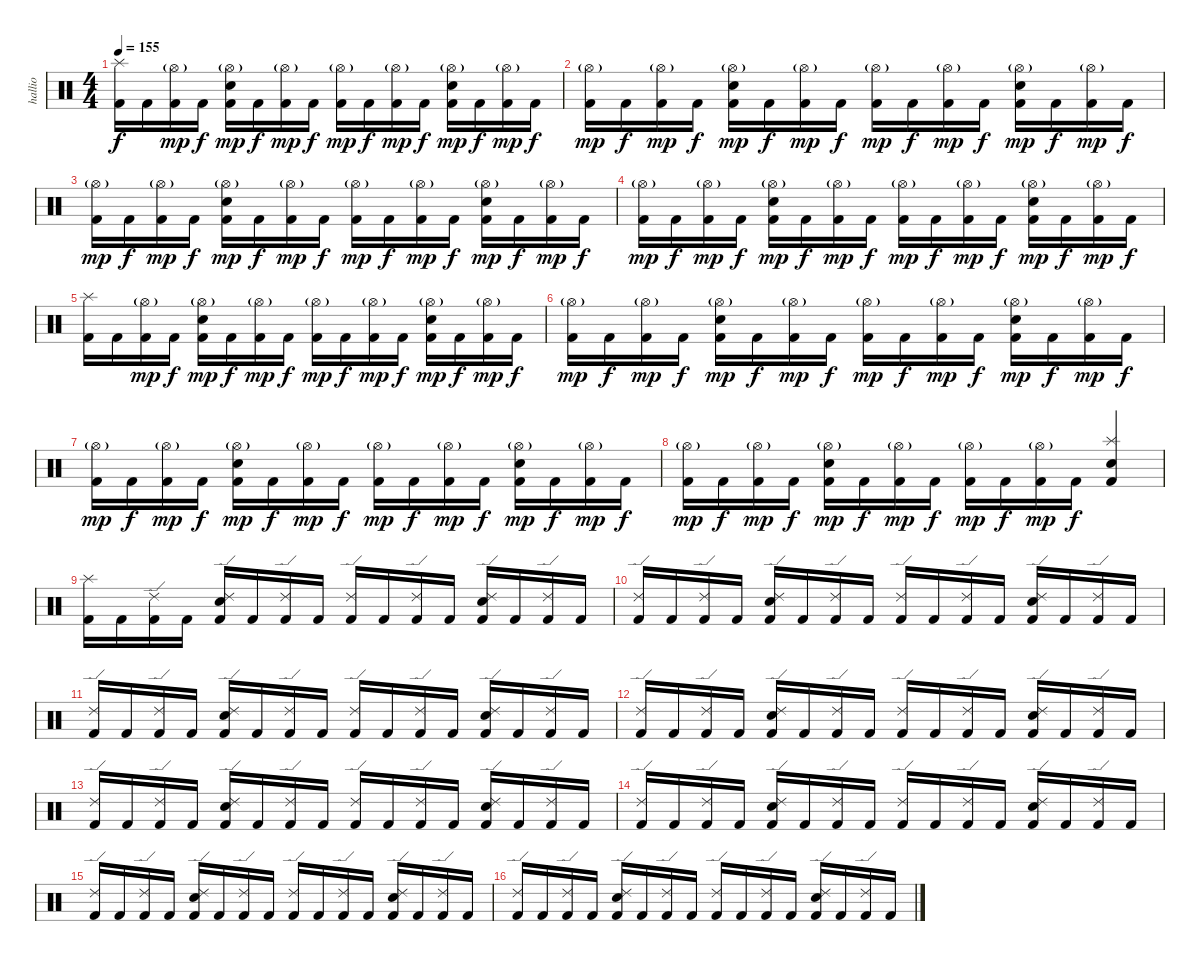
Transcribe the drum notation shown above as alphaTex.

\track ("hallio" "hallio") {instrument percussion}
\staff {score}
\articulation defaults
\ts (4 4)
\tempo 155
\clef neutral
\ks c
("Kick (hit) 2" "Splash (hit)").16{dy f} "Kick (hit) 2".16 ("Kick (hit) 2" "Hi-Hat (open)"{g}).16{dy mp} "Kick (hit) 2".16{dy f} ("Kick (hit) 2" "Snare (hit) 2" "Hi-Hat (open)"{g}).16{dy mp} "Kick (hit) 2".16{dy f} ("Kick (hit) 2" "Hi-Hat (open)"{g}).16{dy mp} "Kick (hit) 2".16{dy f} ("Kick (hit) 2" "Hi-Hat (open)"{g}).16{dy mp} "Kick (hit) 2".16{dy f} ("Kick (hit) 2" "Hi-Hat (open)"{g}).16{dy mp} "Kick (hit) 2".16{dy f} ("Kick (hit) 2" "Snare (hit) 2" "Hi-Hat (open)"{g}).16{dy mp} "Kick (hit) 2".16{dy f} ("Kick (hit) 2" "Hi-Hat (open)"{g}).16{dy mp} "Kick (hit) 2".16{dy f} |
("Kick (hit) 2" "Hi-Hat (open)"{g}).16{dy mp} "Kick (hit) 2".16{dy f} ("Kick (hit) 2" "Hi-Hat (open)"{g}).16{dy mp} "Kick (hit) 2".16{dy f} ("Kick (hit) 2" "Snare (hit) 2" "Hi-Hat (open)"{g}).16{dy mp} "Kick (hit) 2".16{dy f} ("Kick (hit) 2" "Hi-Hat (open)"{g}).16{dy mp} "Kick (hit) 2".16{dy f} ("Kick (hit) 2" "Hi-Hat (open)"{g}).16{dy mp} "Kick (hit) 2".16{dy f} ("Kick (hit) 2" "Hi-Hat (open)"{g}).16{dy mp} "Kick (hit) 2".16{dy f} ("Kick (hit) 2" "Snare (hit) 2" "Hi-Hat (open)"{g}).16{dy mp} "Kick (hit) 2".16{dy f} ("Kick (hit) 2" "Hi-Hat (open)"{g}).16{dy mp} "Kick (hit) 2".16{dy f} |
("Kick (hit) 2" "Hi-Hat (open)"{g}).16{dy mp} "Kick (hit) 2".16{dy f} ("Kick (hit) 2" "Hi-Hat (open)"{g}).16{dy mp} "Kick (hit) 2".16{dy f} ("Kick (hit) 2" "Snare (hit) 2" "Hi-Hat (open)"{g}).16{dy mp} "Kick (hit) 2".16{dy f} ("Kick (hit) 2" "Hi-Hat (open)"{g}).16{dy mp} "Kick (hit) 2".16{dy f} ("Kick (hit) 2" "Hi-Hat (open)"{g}).16{dy mp} "Kick (hit) 2".16{dy f} ("Kick (hit) 2" "Hi-Hat (open)"{g}).16{dy mp} "Kick (hit) 2".16{dy f} ("Kick (hit) 2" "Snare (hit) 2" "Hi-Hat (open)"{g}).16{dy mp} "Kick (hit) 2".16{dy f} ("Kick (hit) 2" "Hi-Hat (open)"{g}).16{dy mp} "Kick (hit) 2".16{dy f} |
("Kick (hit) 2" "Hi-Hat (open)"{g}).16{dy mp} "Kick (hit) 2".16{dy f} ("Kick (hit) 2" "Hi-Hat (open)"{g}).16{dy mp} "Kick (hit) 2".16{dy f} ("Kick (hit) 2" "Snare (hit) 2" "Hi-Hat (open)"{g}).16{dy mp} "Kick (hit) 2".16{dy f} ("Kick (hit) 2" "Hi-Hat (open)"{g}).16{dy mp} "Kick (hit) 2".16{dy f} ("Kick (hit) 2" "Hi-Hat (open)"{g}).16{dy mp} "Kick (hit) 2".16{dy f} ("Kick (hit) 2" "Hi-Hat (open)"{g}).16{dy mp} "Kick (hit) 2".16{dy f} ("Kick (hit) 2" "Snare (hit) 2" "Hi-Hat (open)"{g}).16{dy mp} "Kick (hit) 2".16{dy f} ("Kick (hit) 2" "Hi-Hat (open)"{g}).16{dy mp} "Kick (hit) 2".16{dy f} |
("Kick (hit) 2" "Splash (hit)").16 "Kick (hit) 2".16 ("Kick (hit) 2" "Hi-Hat (open)"{g}).16{dy mp} "Kick (hit) 2".16{dy f} ("Kick (hit) 2" "Snare (hit) 2" "Hi-Hat (open)"{g}).16{dy mp} "Kick (hit) 2".16{dy f} ("Kick (hit) 2" "Hi-Hat (open)"{g}).16{dy mp} "Kick (hit) 2".16{dy f} ("Kick (hit) 2" "Hi-Hat (open)"{g}).16{dy mp} "Kick (hit) 2".16{dy f} ("Kick (hit) 2" "Hi-Hat (open)"{g}).16{dy mp} "Kick (hit) 2".16{dy f} ("Kick (hit) 2" "Snare (hit) 2" "Hi-Hat (open)"{g}).16{dy mp} "Kick (hit) 2".16{dy f} ("Kick (hit) 2" "Hi-Hat (open)"{g}).16{dy mp} "Kick (hit) 2".16{dy f} |
("Kick (hit) 2" "Hi-Hat (open)"{g}).16{dy mp} "Kick (hit) 2".16{dy f} ("Kick (hit) 2" "Hi-Hat (open)"{g}).16{dy mp} "Kick (hit) 2".16{dy f} ("Kick (hit) 2" "Snare (hit) 2" "Hi-Hat (open)"{g}).16{dy mp} "Kick (hit) 2".16{dy f} ("Kick (hit) 2" "Hi-Hat (open)"{g}).16{dy mp} "Kick (hit) 2".16{dy f} ("Kick (hit) 2" "Hi-Hat (open)"{g}).16{dy mp} "Kick (hit) 2".16{dy f} ("Kick (hit) 2" "Hi-Hat (open)"{g}).16{dy mp} "Kick (hit) 2".16{dy f} ("Kick (hit) 2" "Snare (hit) 2" "Hi-Hat (open)"{g}).16{dy mp} "Kick (hit) 2".16{dy f} ("Kick (hit) 2" "Hi-Hat (open)"{g}).16{dy mp} "Kick (hit) 2".16{dy f} |
("Kick (hit) 2" "Hi-Hat (open)"{g}).16{dy mp} "Kick (hit) 2".16{dy f} ("Kick (hit) 2" "Hi-Hat (open)"{g}).16{dy mp} "Kick (hit) 2".16{dy f} ("Kick (hit) 2" "Snare (hit) 2" "Hi-Hat (open)"{g}).16{dy mp} "Kick (hit) 2".16{dy f} ("Kick (hit) 2" "Hi-Hat (open)"{g}).16{dy mp} "Kick (hit) 2".16{dy f} ("Kick (hit) 2" "Hi-Hat (open)"{g}).16{dy mp} "Kick (hit) 2".16{dy f} ("Kick (hit) 2" "Hi-Hat (open)"{g}).16{dy mp} "Kick (hit) 2".16{dy f} ("Kick (hit) 2" "Snare (hit) 2" "Hi-Hat (open)"{g}).16{dy mp} "Kick (hit) 2".16{dy f} ("Kick (hit) 2" "Hi-Hat (open)"{g}).16{dy mp} "Kick (hit) 2".16{dy f} |
("Kick (hit) 2" "Hi-Hat (open)"{g}).16{dy mp} "Kick (hit) 2".16{dy f} ("Kick (hit) 2" "Hi-Hat (open)"{g}).16{dy mp} "Kick (hit) 2".16{dy f} ("Kick (hit) 2" "Snare (hit) 2" "Hi-Hat (open)"{g}).16{dy mp} "Kick (hit) 2".16{dy f} ("Kick (hit) 2" "Hi-Hat (open)"{g}).16{dy mp} "Kick (hit) 2".16{dy f} ("Kick (hit) 2" "Hi-Hat (open)"{g}).16{dy mp} "Kick (hit) 2".16{dy f} ("Kick (hit) 2" "Hi-Hat (open)"{g}).16{dy mp} "Kick (hit) 2".16{dy f} ("Kick (hit) 2" "Snare (hit) 2" "Splash (hit)").4 |
("Kick (hit) 2" "Splash (hit)").16 "Kick (hit) 2".16 ("Kick (hit) 2" "Ride (edge) 2").16 "Kick (hit) 2".16 ("Kick (hit) 2" "Snare (hit) 2" "Ride (edge) 2").16 "Kick (hit) 2".16 ("Kick (hit) 2" "Ride (edge) 2").16 "Kick (hit) 2".16 ("Kick (hit) 2" "Ride (edge) 2").16 "Kick (hit) 2".16 ("Kick (hit) 2" "Ride (edge) 2").16 "Kick (hit) 2".16 ("Kick (hit) 2" "Snare (hit) 2" "Ride (edge) 2").16 "Kick (hit) 2".16 ("Kick (hit) 2" "Ride (edge) 2").16 "Kick (hit) 2".16 |
("Kick (hit) 2" "Ride (edge) 2").16 "Kick (hit) 2".16 ("Kick (hit) 2" "Ride (edge) 2").16 "Kick (hit) 2".16 ("Kick (hit) 2" "Snare (hit) 2" "Ride (edge) 2").16 "Kick (hit) 2".16 ("Kick (hit) 2" "Ride (edge) 2").16 "Kick (hit) 2".16 ("Kick (hit) 2" "Ride (edge) 2").16 "Kick (hit) 2".16 ("Kick (hit) 2" "Ride (edge) 2").16 "Kick (hit) 2".16 ("Kick (hit) 2" "Snare (hit) 2" "Ride (edge) 2").16 "Kick (hit) 2".16 ("Kick (hit) 2" "Ride (edge) 2").16 "Kick (hit) 2".16 |
("Kick (hit) 2" "Ride (edge) 2").16 "Kick (hit) 2".16 ("Kick (hit) 2" "Ride (edge) 2").16 "Kick (hit) 2".16 ("Kick (hit) 2" "Snare (hit) 2" "Ride (edge) 2").16 "Kick (hit) 2".16 ("Kick (hit) 2" "Ride (edge) 2").16 "Kick (hit) 2".16 ("Kick (hit) 2" "Ride (edge) 2").16 "Kick (hit) 2".16 ("Kick (hit) 2" "Ride (edge) 2").16 "Kick (hit) 2".16 ("Kick (hit) 2" "Snare (hit) 2" "Ride (edge) 2").16 "Kick (hit) 2".16 ("Kick (hit) 2" "Ride (edge) 2").16 "Kick (hit) 2".16 |
("Kick (hit) 2" "Ride (edge) 2").16 "Kick (hit) 2".16 ("Kick (hit) 2" "Ride (edge) 2").16 "Kick (hit) 2".16 ("Kick (hit) 2" "Snare (hit) 2" "Ride (edge) 2").16 "Kick (hit) 2".16 ("Kick (hit) 2" "Ride (edge) 2").16 "Kick (hit) 2".16 ("Kick (hit) 2" "Ride (edge) 2").16 "Kick (hit) 2".16 ("Kick (hit) 2" "Ride (edge) 2").16 "Kick (hit) 2".16 ("Kick (hit) 2" "Snare (hit) 2" "Ride (edge) 2").16 "Kick (hit) 2".16 ("Kick (hit) 2" "Ride (edge) 2").16 "Kick (hit) 2".16 |
("Kick (hit) 2" "Ride (edge) 2").16 "Kick (hit) 2".16 ("Kick (hit) 2" "Ride (edge) 2").16 "Kick (hit) 2".16 ("Kick (hit) 2" "Snare (hit) 2" "Ride (edge) 2").16 "Kick (hit) 2".16 ("Kick (hit) 2" "Ride (edge) 2").16 "Kick (hit) 2".16 ("Kick (hit) 2" "Ride (edge) 2").16 "Kick (hit) 2".16 ("Kick (hit) 2" "Ride (edge) 2").16 "Kick (hit) 2".16 ("Kick (hit) 2" "Snare (hit) 2" "Ride (edge) 2").16 "Kick (hit) 2".16 ("Kick (hit) 2" "Ride (edge) 2").16 "Kick (hit) 2".16 |
("Kick (hit) 2" "Ride (edge) 2").16 "Kick (hit) 2".16 ("Kick (hit) 2" "Ride (edge) 2").16 "Kick (hit) 2".16 ("Kick (hit) 2" "Snare (hit) 2" "Ride (edge) 2").16 "Kick (hit) 2".16 ("Kick (hit) 2" "Ride (edge) 2").16 "Kick (hit) 2".16 ("Kick (hit) 2" "Ride (edge) 2").16 "Kick (hit) 2".16 ("Kick (hit) 2" "Ride (edge) 2").16 "Kick (hit) 2".16 ("Kick (hit) 2" "Snare (hit) 2" "Ride (edge) 2").16 "Kick (hit) 2".16 ("Kick (hit) 2" "Ride (edge) 2").16 "Kick (hit) 2".16 |
("Kick (hit) 2" "Ride (edge) 2").16 "Kick (hit) 2".16 ("Kick (hit) 2" "Ride (edge) 2").16 "Kick (hit) 2".16 ("Kick (hit) 2" "Snare (hit) 2" "Ride (edge) 2").16 "Kick (hit) 2".16 ("Kick (hit) 2" "Ride (edge) 2").16 "Kick (hit) 2".16 ("Kick (hit) 2" "Ride (edge) 2").16 "Kick (hit) 2".16 ("Kick (hit) 2" "Ride (edge) 2").16 "Kick (hit) 2".16 ("Kick (hit) 2" "Snare (hit) 2" "Ride (edge) 2").16 "Kick (hit) 2".16 ("Kick (hit) 2" "Ride (edge) 2").16 "Kick (hit) 2".16 |
("Kick (hit) 2" "Ride (edge) 2").16 "Kick (hit) 2".16 ("Kick (hit) 2" "Ride (edge) 2").16 "Kick (hit) 2".16 ("Kick (hit) 2" "Snare (hit) 2" "Ride (edge) 2").16 "Kick (hit) 2".16 ("Kick (hit) 2" "Ride (edge) 2").16 "Kick (hit) 2".16 ("Kick (hit) 2" "Ride (edge) 2").16 "Kick (hit) 2".16 ("Kick (hit) 2" "Ride (edge) 2").16 "Kick (hit) 2".16 ("Kick (hit) 2" "Snare (hit) 2" "Ride (edge) 2").16 "Kick (hit) 2".16 ("Kick (hit) 2" "Ride (edge) 2").16 "Kick (hit) 2".16
